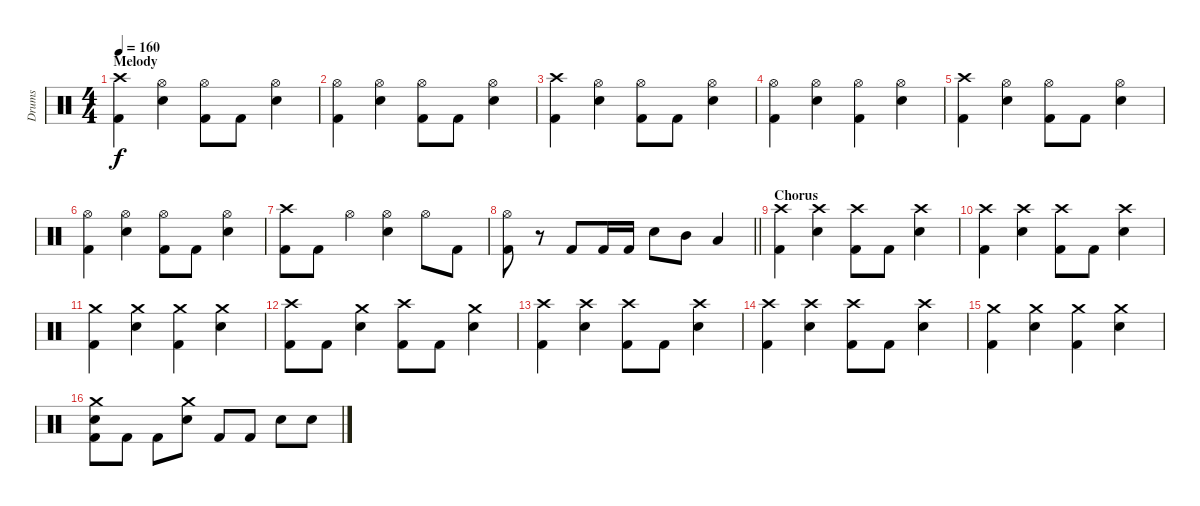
\track ("Drums " "Drums ") {instrument percussion}
\staff {score}
\articulation defaults
\ts (4 4)
\section ("" "Melody")
\tempo 160
\clef neutral
\ks c
("Crash high (hit)" "Kick (hit) 2").4{dy f} ("Hi-Hat (open)" "Snare (hit) 2").4 ("Hi-Hat (open)" "Kick (hit) 2").8 "Kick (hit) 2".8 ("Hi-Hat (open)" "Snare (hit) 2").4 |
("Hi-Hat (open)" "Kick (hit) 2").4 ("Hi-Hat (open)" "Snare (hit) 2").4 ("Hi-Hat (open)" "Kick (hit) 2").8 "Kick (hit) 2".8 ("Hi-Hat (open)" "Snare (hit) 2").4 |
("Crash high (hit)" "Kick (hit) 2").4 ("Hi-Hat (open)" "Snare (hit) 2").4 ("Hi-Hat (open)" "Kick (hit) 2").8 "Kick (hit) 2".8 ("Hi-Hat (open)" "Snare (hit) 2").4 |
("Hi-Hat (open)" "Kick (hit) 2").4 ("Hi-Hat (open)" "Snare (hit) 2").4 ("Hi-Hat (open)" "Kick (hit) 2").4 ("Hi-Hat (open)" "Snare (hit) 2").4 |
("Crash high (hit)" "Kick (hit) 2").4 ("Hi-Hat (open)" "Snare (hit) 2").4 ("Hi-Hat (open)" "Kick (hit) 2").8 "Kick (hit) 2".8 ("Hi-Hat (open)" "Snare (hit) 2").4 |
("Hi-Hat (open)" "Kick (hit) 2").4 ("Hi-Hat (open)" "Snare (hit) 2").4 ("Hi-Hat (open)" "Kick (hit) 2").8 "Kick (hit) 2".8 ("Hi-Hat (open)" "Snare (hit) 2").4 |
("Crash high (hit)" "Kick (hit) 2").8 "Kick (hit) 2".8 "Hi-Hat (open)".4 ("Hi-Hat (open)" "Snare (hit) 2").4 "Hi-Hat (open)".8 "Kick (hit) 2".8 |
\barLineRight lightlight
("Hi-Hat (open)" "Kick (hit) 2").8 r.8 "Kick (hit) 2".8 "Kick (hit) 2".16 "Kick (hit) 2".16 "Snare (hit) 2".8 "Mid Tom (hit)".8 "Low Tom (hit)".4 |
\section ("" "Chorus")
("Crash high (hit)" "Kick (hit) 2").4 ("Crash high (hit)" "Snare (hit) 2").4 ("Crash high (hit)" "Kick (hit) 2").8 "Kick (hit) 2".8 ("Crash high (hit)" "Snare (hit) 2").4 |
("Crash high (hit)" "Kick (hit) 2").4 ("Crash high (hit)" "Snare (hit) 2").4 ("Crash high (hit)" "Kick (hit) 2").8 "Kick (hit) 2".8 ("Crash high (hit)" "Snare (hit) 2").4 |
("Crash medium (hit)" "Kick (hit) 2").4 ("Crash medium (hit)" "Snare (hit) 2").4 ("Crash medium (hit)" "Kick (hit) 2").4 ("Crash medium (hit)" "Snare (hit) 2").4 |
("Crash high (hit)" "Kick (hit) 2").8 "Kick (hit) 2".8 ("Crash medium (hit)" "Snare (hit) 2").4 ("Crash high (hit)" "Kick (hit) 2").8 "Kick (hit) 2".8 ("Crash medium (hit)" "Snare (hit) 2").4 |
("Crash high (hit)" "Kick (hit) 2").4 ("Crash high (hit)" "Snare (hit) 2").4 ("Crash high (hit)" "Kick (hit) 2").8 "Kick (hit) 2".8 ("Crash high (hit)" "Snare (hit) 2").4 |
("Crash high (hit)" "Kick (hit) 2").4 ("Crash high (hit)" "Snare (hit) 2").4 ("Crash high (hit)" "Kick (hit) 2").8 "Kick (hit) 2".8 ("Crash high (hit)" "Snare (hit) 2").4 |
("Crash medium (hit)" "Kick (hit) 2").4 ("Crash medium (hit)" "Snare (hit) 2").4 ("Crash medium (hit)" "Kick (hit) 2").4 ("Crash medium (hit)" "Snare (hit) 2").4 |
("Crash medium (hit)" "Snare (hit) 2" "Kick (hit) 2").8 "Kick (hit) 2".8 "Kick (hit) 2".8 ("Crash medium (hit)" "Snare (hit) 2").8 "Kick (hit) 2".8 "Kick (hit) 2".8 "Snare (hit) 2".8 "Snare (hit) 2".8
